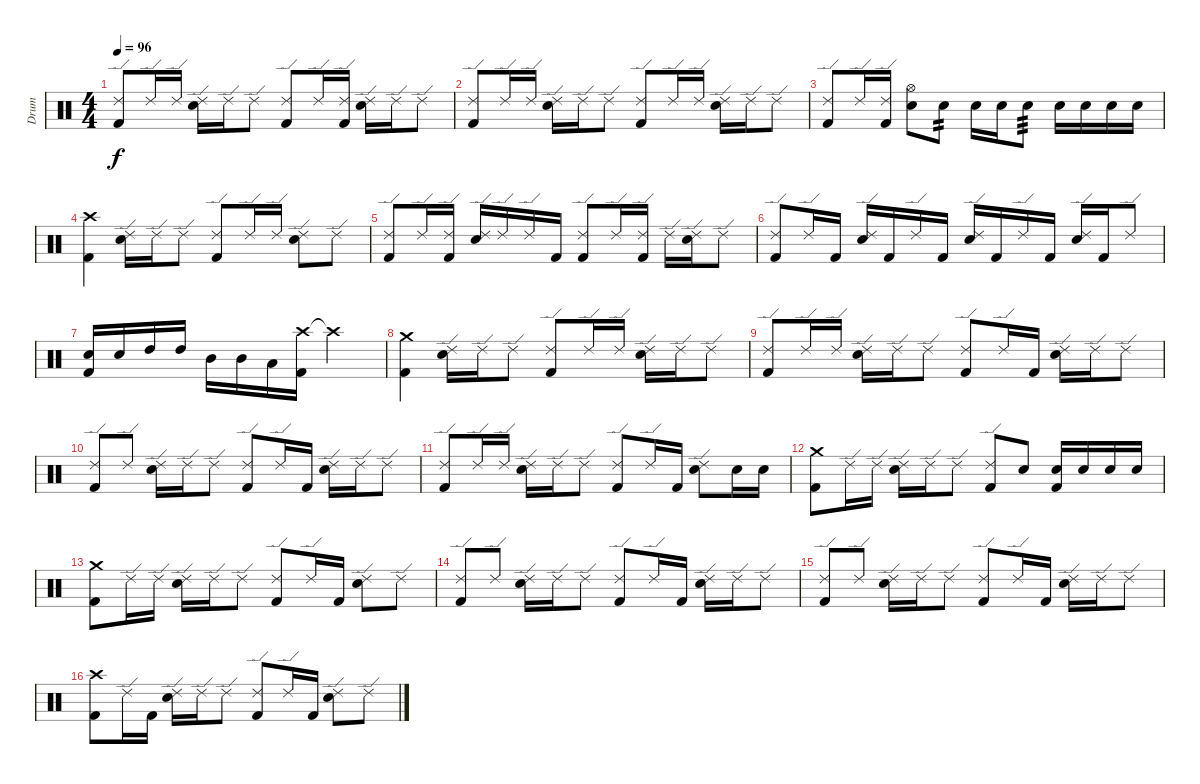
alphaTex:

\track ("Drum" "Drum") {instrument percussion}
\staff {score}
\articulation defaults
\ts (4 4)
\tempo 96
\clef neutral
\ks c
("Ride (edge) 2" "Kick (hit) 2").8{dy f} "Ride (edge) 2".16 "Ride (edge) 2".16 ("Ride (edge) 2" "Electric Snare (hit)").16 "Ride (edge) 2".16 "Ride (edge) 2".8 ("Ride (edge) 2" "Kick (hit) 2").8 "Ride (edge) 2".16 ("Ride (edge) 2" "Kick (hit) 2").16 ("Ride (edge) 2" "Electric Snare (hit)").16 "Ride (edge) 2".16 "Ride (edge) 2".8 |
("Ride (edge) 2" "Kick (hit) 2").8 "Ride (edge) 2".16 "Ride (edge) 2".16 ("Ride (edge) 2" "Electric Snare (hit)").16 "Ride (edge) 2".16 "Ride (edge) 2".8 ("Ride (edge) 2" "Kick (hit) 2").8 "Ride (edge) 2".16 "Ride (edge) 2".16 ("Ride (edge) 2" "Electric Snare (hit)").16 "Ride (edge) 2".16 "Ride (edge) 2".8 |
("Ride (edge) 2" "Kick (hit) 2").8 "Ride (edge) 2".16 ("Ride (edge) 2" "Kick (hit) 2").16 ("Hi-Hat (open)" "Electric Snare (hit)").8 "Electric Snare (hit)".8{tp 2} "Electric Snare (hit)".16 "Electric Snare (hit)".16 "Electric Snare (hit)".8{tp 3} "Electric Snare (hit)".16 "Electric Snare (hit)".16 "Electric Snare (hit)".16 "Electric Snare (hit)".16 |
("Crash high (hit)" "Kick (hit) 2").4 ("Ride (edge) 2" "Electric Snare (hit)").16 "Ride (edge) 2".16 "Ride (edge) 2".8 ("Ride (edge) 2" "Kick (hit) 2").8 "Ride (edge) 2".16 "Ride (edge) 2".16 ("Ride (edge) 2" "Electric Snare (hit)").8 "Ride (edge) 2".8 |
("Ride (edge) 2" "Kick (hit) 2").8 "Ride (edge) 2".16 ("Ride (edge) 2" "Kick (hit) 2").16 ("Ride (edge) 2" "Electric Snare (hit)").16 "Ride (edge) 2".16 "Ride (edge) 2".16 "Kick (hit) 2".16 ("Ride (edge) 2" "Kick (hit) 2").8 "Ride (edge) 2".16 ("Ride (edge) 2" "Kick (hit) 2").16 "Ride (edge) 2".16 ("Ride (edge) 2" "Electric Snare (hit)").16 "Ride (edge) 2".8 |
("Ride (edge) 2" "Kick (hit) 2").8 "Ride (edge) 2".16 "Kick (hit) 2".16 ("Ride (edge) 2" "Electric Snare (hit)").16 "Kick (hit) 2".16 "Ride (edge) 2".16 "Kick (hit) 2".16 ("Ride (edge) 2" "Electric Snare (hit)").16 "Kick (hit) 2".16 "Ride (edge) 2".16 "Kick (hit) 2".16 ("Ride (edge) 2" "Electric Snare (hit)").16 "Kick (hit) 2".16 "Ride (edge) 2".8 |
("Electric Snare (hit)" "Kick (hit) 2").16 "Electric Snare (hit)".16 "High Tom (hit)".16 "High Tom (hit)".16 "Mid Tom (hit)".16 "Mid Tom (hit)".16 "Low Floor Tom (hit)".16 ("Crash high (hit)" "Kick (hit) 2").16 "Crash high (hit)"{t}.2 |
("Crash medium (hit)" "Kick (hit) 2").4 ("Ride (edge) 2" "Electric Snare (hit)").16 "Ride (edge) 2".16 "Ride (edge) 2".8 ("Ride (edge) 2" "Kick (hit) 2").8 "Ride (edge) 2".16 "Ride (edge) 2".16 ("Ride (edge) 2" "Electric Snare (hit)").16 "Ride (edge) 2".16 "Ride (edge) 2".8 |
("Ride (edge) 2" "Kick (hit) 2").8 "Ride (edge) 2".16 "Ride (edge) 2".16 ("Ride (edge) 2" "Electric Snare (hit)").16 "Ride (edge) 2".16 "Ride (edge) 2".8 ("Ride (edge) 2" "Kick (hit) 2").8 "Ride (edge) 2".16 "Kick (hit) 2".16 ("Ride (edge) 2" "Electric Snare (hit)").16 "Ride (edge) 2".16 "Ride (edge) 2".8 |
("Ride (edge) 2" "Kick (hit) 2").8 "Ride (edge) 2".8 ("Ride (edge) 2" "Electric Snare (hit)").16 "Ride (edge) 2".16 "Ride (edge) 2".8 ("Ride (edge) 2" "Kick (hit) 2").8 "Ride (edge) 2".16 "Kick (hit) 2".16 ("Ride (edge) 2" "Electric Snare (hit)").16 "Ride (edge) 2".16 "Ride (edge) 2".8 |
("Ride (edge) 2" "Kick (hit) 2").8 "Ride (edge) 2".16 "Ride (edge) 2".16 ("Ride (edge) 2" "Electric Snare (hit)").16 "Ride (edge) 2".16 "Ride (edge) 2".8 ("Ride (edge) 2" "Kick (hit) 2").8 "Ride (edge) 2".16 "Kick (hit) 2".16 ("Ride (edge) 2" "Electric Snare (hit)").8 "Electric Snare (hit)".16 "Electric Snare (hit)".16 |
("Crash medium (hit)" "Kick (hit) 2").8 "Ride (edge) 2".16 "Ride (edge) 2".16 ("Ride (edge) 2" "Electric Snare (hit)").16 "Ride (edge) 2".16 "Ride (edge) 2".8 ("Ride (edge) 2" "Kick (hit) 2").8 "Electric Snare (hit)".8 ("Electric Snare (hit)" "Kick (hit) 2").16 "Electric Snare (hit)".16 "Electric Snare (hit)".16 "Electric Snare (hit)".16 |
("Crash medium (hit)" "Kick (hit) 2").8 "Ride (edge) 2".16 "Ride (edge) 2".16 ("Ride (edge) 2" "Electric Snare (hit)").16 "Ride (edge) 2".16 "Ride (edge) 2".8 ("Ride (edge) 2" "Kick (hit) 2").8 "Ride (edge) 2".16 "Kick (hit) 2".16 ("Ride (edge) 2" "Electric Snare (hit)").8 "Ride (edge) 2".8 |
("Ride (edge) 2" "Kick (hit) 2").8 "Ride (edge) 2".8 ("Ride (edge) 2" "Electric Snare (hit)").16 "Ride (edge) 2".16 "Ride (edge) 2".8 ("Ride (edge) 2" "Kick (hit) 2").8 "Ride (edge) 2".16 "Kick (hit) 2".16 ("Ride (edge) 2" "Electric Snare (hit)").16 "Ride (edge) 2".16 "Ride (edge) 2".8 |
("Ride (edge) 2" "Kick (hit) 2").8 "Ride (edge) 2".8 ("Ride (edge) 2" "Electric Snare (hit)").16 "Ride (edge) 2".16 "Ride (edge) 2".8 ("Ride (edge) 2" "Kick (hit) 2").8 "Ride (edge) 2".16 "Kick (hit) 2".16 ("Ride (edge) 2" "Electric Snare (hit)").16 "Ride (edge) 2".16 "Ride (edge) 2".8 |
("Crash high (hit)" "Kick (hit) 2").8 "Ride (edge) 2".16 "Kick (hit) 2".16 ("Ride (edge) 2" "Electric Snare (hit)").16 "Ride (edge) 2".16 "Ride (edge) 2".8 ("Ride (edge) 2" "Kick (hit) 2").8 "Ride (edge) 2".16 "Kick (hit) 2".16 ("Ride (edge) 2" "Electric Snare (hit)").8 "Ride (edge) 2".8
